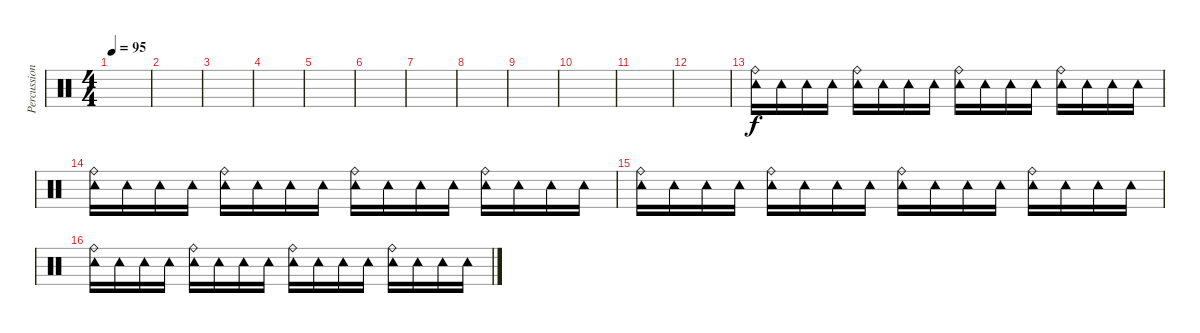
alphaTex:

\track ("Percussion (2)" "Percussion") {instrument percussion}
\staff {score}
\articulation defaults
\ts (4 4)
\tempo 95
\clef neutral
\ks c
|
|
|
|
|
|
|
|
|
|
|
|
("Tambourine (hit)" "Ride (bell)").16 "Tambourine (hit)".16 "Tambourine (hit)".16 "Tambourine (hit)".16 ("Tambourine (hit)" "Ride (bell)").16 "Tambourine (hit)".16 "Tambourine (hit)".16 "Tambourine (hit)".16 ("Tambourine (hit)" "Ride (bell)").16 "Tambourine (hit)".16 "Tambourine (hit)".16 "Tambourine (hit)".16 ("Tambourine (hit)" "Ride (bell)").16 "Tambourine (hit)".16 "Tambourine (hit)".16 "Tambourine (hit)".16 |
("Tambourine (hit)" "Ride (bell)").16 "Tambourine (hit)".16 "Tambourine (hit)".16 "Tambourine (hit)".16 ("Tambourine (hit)" "Ride (bell)").16 "Tambourine (hit)".16 "Tambourine (hit)".16 "Tambourine (hit)".16 ("Tambourine (hit)" "Ride (bell)").16 "Tambourine (hit)".16 "Tambourine (hit)".16 "Tambourine (hit)".16 ("Tambourine (hit)" "Ride (bell)").16 "Tambourine (hit)".16 "Tambourine (hit)".16 "Tambourine (hit)".16 |
("Tambourine (hit)" "Ride (bell)").16 "Tambourine (hit)".16 "Tambourine (hit)".16 "Tambourine (hit)".16 ("Tambourine (hit)" "Ride (bell)").16 "Tambourine (hit)".16 "Tambourine (hit)".16 "Tambourine (hit)".16 ("Tambourine (hit)" "Ride (bell)").16 "Tambourine (hit)".16 "Tambourine (hit)".16 "Tambourine (hit)".16 ("Tambourine (hit)" "Ride (bell)").16 "Tambourine (hit)".16 "Tambourine (hit)".16 "Tambourine (hit)".16 |
("Tambourine (hit)" "Ride (bell)").16 "Tambourine (hit)".16 "Tambourine (hit)".16 "Tambourine (hit)".16 ("Tambourine (hit)" "Ride (bell)").16 "Tambourine (hit)".16 "Tambourine (hit)".16 "Tambourine (hit)".16 ("Tambourine (hit)" "Ride (bell)").16 "Tambourine (hit)".16 "Tambourine (hit)".16 "Tambourine (hit)".16 ("Tambourine (hit)" "Ride (bell)").16 "Tambourine (hit)".16 "Tambourine (hit)".16 "Tambourine (hit)".16
